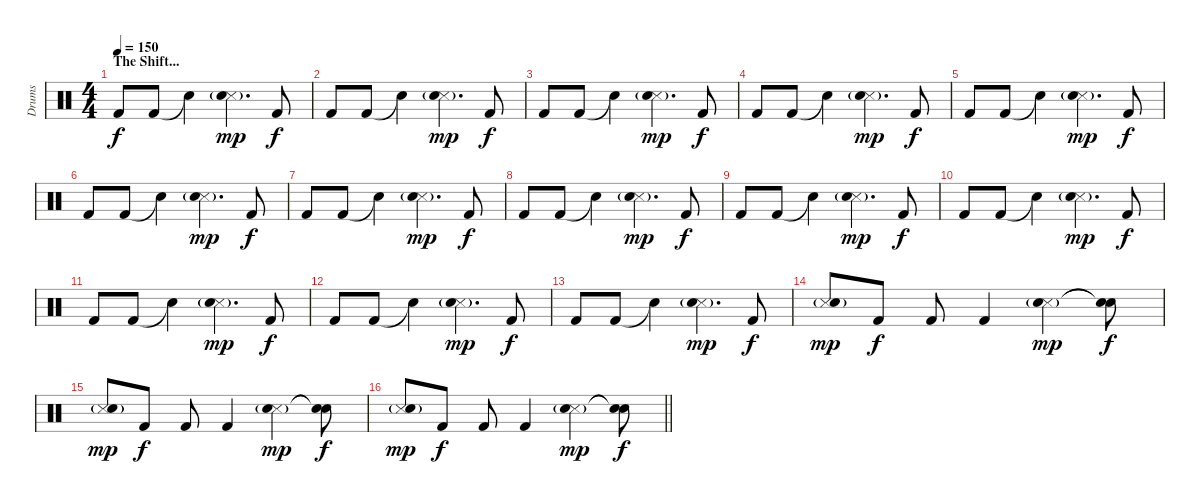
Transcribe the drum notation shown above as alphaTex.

\track ("Drums" "Drums") {instrument percussion}
\staff {score}
\articulation defaults
\ts (4 4)
\section ("" "The Shift...")
\tempo 150
\clef neutral
\ks c "Kick (hit) 2".8{dy f} "Kick (hit) 2".8 "Snare (hit)"{t}.4
("Snare (side stick) 3" "Electric Snare (hit)"{g}).4{d dy mp} "Kick (hit) 2".8{dy f} |
"Kick (hit) 2".8 "Kick (hit) 2".8 "Snare (hit)"{t}.4 ("Snare (side stick) 3" "Electric Snare (hit)"{g}).4{d dy mp} "Kick (hit) 2".8{dy f} |
"Kick (hit) 2".8 "Kick (hit) 2".8 "Snare (hit)"{t}.4 ("Snare (side stick) 3" "Electric Snare (hit)"{g}).4{d dy mp} "Kick (hit) 2".8{dy f} |
"Kick (hit) 2".8 "Kick (hit) 2".8 "Snare (hit)"{t}.4 ("Snare (side stick) 3" "Electric Snare (hit)"{g}).4{d dy mp} "Kick (hit) 2".8{dy f} |
"Kick (hit) 2".8 "Kick (hit) 2".8 "Snare (hit)"{t}.4 ("Snare (side stick) 3" "Electric Snare (hit)"{g}).4{d dy mp} "Kick (hit) 2".8{dy f} |
"Kick (hit) 2".8 "Kick (hit) 2".8 "Snare (hit)"{t}.4 ("Snare (side stick) 3" "Electric Snare (hit)"{g}).4{d dy mp} "Kick (hit) 2".8{dy f} |
"Kick (hit) 2".8 "Kick (hit) 2".8 "Snare (hit)"{t}.4 ("Snare (side stick) 3" "Electric Snare (hit)"{g}).4{d dy mp} "Kick (hit) 2".8{dy f} |
"Kick (hit) 2".8 "Kick (hit) 2".8 "Snare (hit)"{t}.4 ("Snare (side stick) 3" "Electric Snare (hit)"{g}).4{d dy mp} "Kick (hit) 2".8{dy f} |
"Kick (hit) 2".8 "Kick (hit) 2".8 "Snare (hit)"{t}.4 ("Snare (side stick) 3" "Electric Snare (hit)"{g}).4{d dy mp} "Kick (hit) 2".8{dy f} |
"Kick (hit) 2".8 "Kick (hit) 2".8 "Snare (hit)"{t}.4 ("Snare (side stick) 3" "Electric Snare (hit)"{g}).4{d dy mp} "Kick (hit) 2".8{dy f} |
"Kick (hit) 2".8 "Kick (hit) 2".8 "Snare (hit)"{t}.4 ("Snare (side stick) 3" "Electric Snare (hit)"{g}).4{d dy mp} "Kick (hit) 2".8{dy f} |
"Kick (hit) 2".8 "Kick (hit) 2".8 "Snare (hit)"{t}.4 ("Snare (side stick) 3" "Electric Snare (hit)"{g}).4{d dy mp} "Kick (hit) 2".8{dy f} |
"Kick (hit) 2".8 "Kick (hit) 2".8 "Snare (hit)"{t}.4 ("Snare (side stick) 3" "Electric Snare (hit)"{g}).4{d dy mp} "Kick (hit) 2".8{dy f} |
("Snare (side stick) 3" "Electric Snare (hit)"{g}).8{dy mp} "Kick (hit) 2".8{dy f} "Kick (hit) 2".8 "Kick (hit) 2".4 ("Snare (side stick) 3" "Electric Snare (hit)"{g}).4{dy mp} ("Snare (hit)"{t} "Snare (hit)"{t}).8{dy f} |
("Snare (side stick) 3" "Electric Snare (hit)"{g}).8{dy mp} "Kick (hit) 2".8{dy f} "Kick (hit) 2".8 "Kick (hit) 2".4 ("Snare (side stick) 3" "Electric Snare (hit)"{g}).4{dy mp} ("Snare (hit)"{t} "Snare (hit)"{t}).8{dy f} |
\barLineRight lightlight
("Snare (side stick) 3" "Electric Snare (hit)"{g}).8{dy mp} "Kick (hit) 2".8{dy f} "Kick (hit) 2".8 "Kick (hit) 2".4 ("Snare (side stick) 3" "Electric Snare (hit)"{g}).4{dy mp} ("Snare (hit)"{t} "Snare (hit)"{t}).8{dy f}
